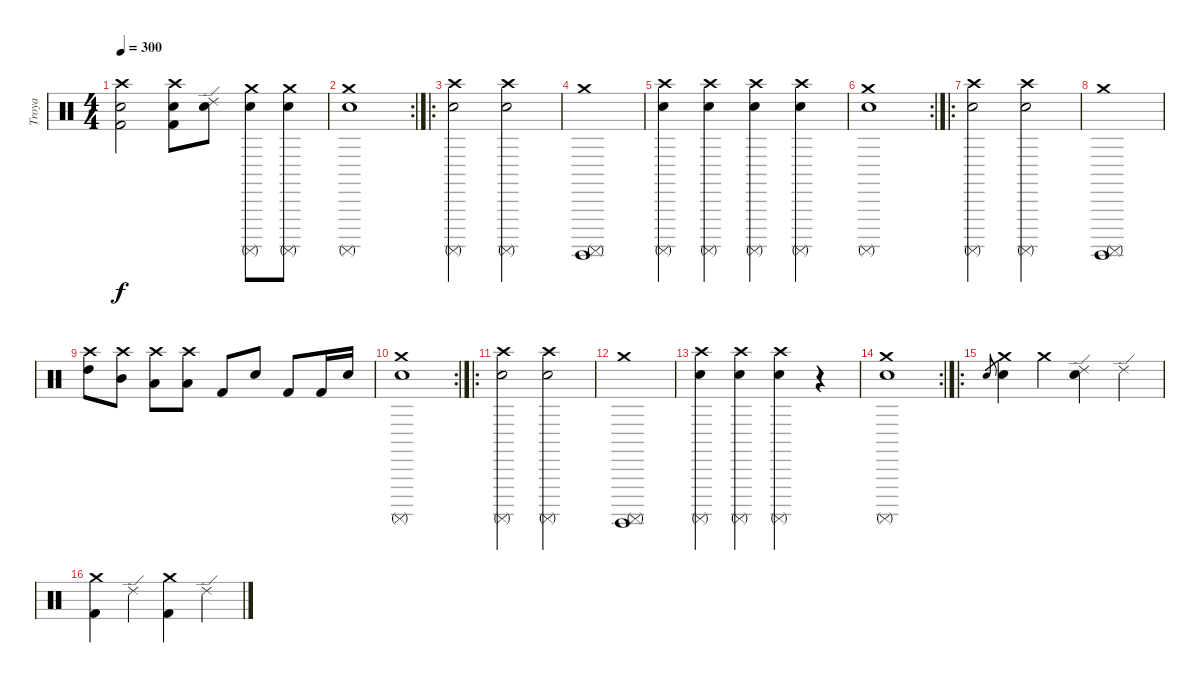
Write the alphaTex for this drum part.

\track ("Troya" "Troya") {instrument percussion}
\staff {score}
\articulation defaults
\ts (4 4)
\tempo 300
\clef neutral
\ks c
("Crash high (hit)" "Kick (hit) 2" "Snare (hit) 2").2{dy f} ("Crash high (hit)" "Kick (hit) 2" "Snare (hit) 2").8 ("Ride (edge) 2" "Snare (hit) 2").8 ("Crash medium (hit)" "Surdo (mute)" "Electric Snare (hit)").8 ("Crash medium (hit)" "Surdo (mute)" "Electric Snare (hit)").8 |
\rc 2
("Crash medium (hit)" "Surdo (mute)" "Electric Snare (hit)").1 |
\ro
("Crash high (hit)" "Surdo (mute)" "Electric Snare (hit)").2 ("Crash high (hit)" "Surdo (mute)" "Electric Snare (hit)").2 |
("Crash medium (hit)" "Surdo (hit)" "Surdo (mute)").1 |
("Crash high (hit)" "Surdo (mute)" "Electric Snare (hit)").4 ("Crash high (hit)" "Surdo (mute)" "Electric Snare (hit)").4 ("Crash high (hit)" "Surdo (mute)" "Electric Snare (hit)").4 ("Crash high (hit)" "Surdo (mute)" "Electric Snare (hit)").4 |
\rc 2
("Crash medium (hit)" "Electric Snare (hit)" "Surdo (mute)").1 |
\ro
("Crash high (hit)" "Surdo (mute)" "Electric Snare (hit)").2 ("Crash high (hit)" "Surdo (mute)" "Electric Snare (hit)").2 |
("Crash medium (hit)" "Surdo (hit)" "Surdo (mute)").1 |
("Crash high (hit)" "High Tom (hit)").8 ("Crash high (hit)" "Mid Tom (hit)").8 ("Crash high (hit)" "Low Tom (hit)").8 ("Crash high (hit)" "Low Floor Tom (hit)").8 "Kick (hit) 2".8 "Snare (hit) 2".8 "Kick (hit) 2".8 "Kick (hit) 2".16 "Snare (hit) 2".16 |
\rc 2
("Crash medium (hit)" "Electric Snare (hit)" "Surdo (mute)").1 |
\ro
("Crash high (hit)" "Surdo (mute)" "Electric Snare (hit)").2 ("Crash high (hit)" "Surdo (mute)" "Electric Snare (hit)").2 |
("Crash medium (hit)" "Surdo (hit)" "Surdo (mute)").1 |
("Crash high (hit)" "Surdo (mute)" "Electric Snare (hit)").4 ("Crash high (hit)" "Surdo (mute)" "Electric Snare (hit)").4 ("Crash high (hit)" "Surdo (mute)" "Electric Snare (hit)").4 r.4 |
\rc 2
("Crash medium (hit)" "Surdo (mute)" "Electric Snare (hit)").1 |
\ro "Snare (hit) 2".8{gr}
("Snare (hit) 2" "Crash medium (hit)").4 "Crash medium (hit)".4 ("Ride (edge) 2" "Snare (hit) 2").4 "Ride (edge) 2".4 |
("Kick (hit) 2" "Crash medium (hit)").4 "Ride (edge) 2".4 ("Kick (hit) 2" "Crash medium (hit)").4 "Ride (edge) 2".4
